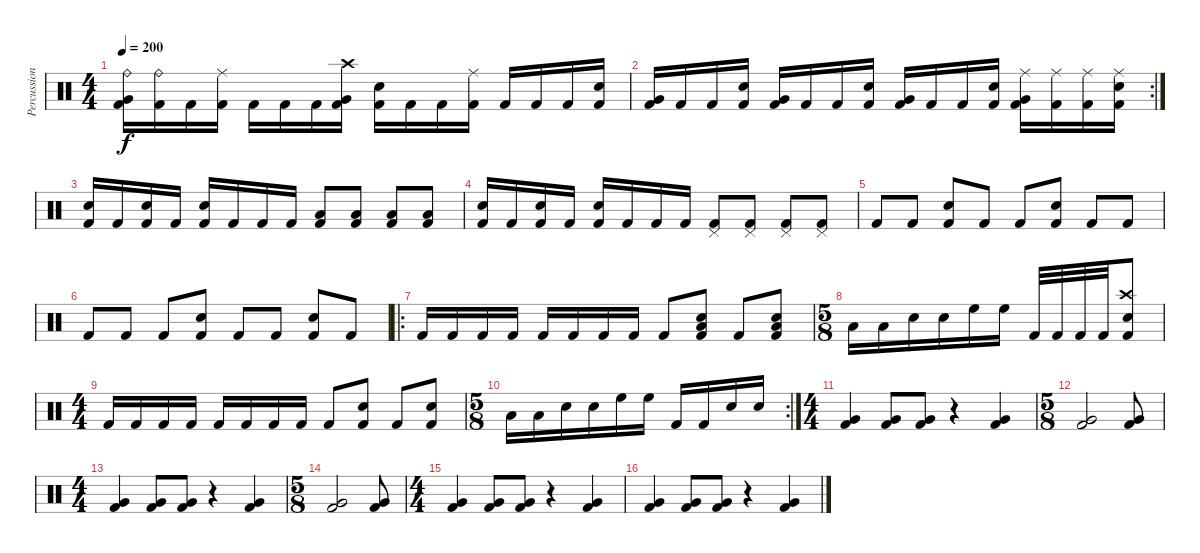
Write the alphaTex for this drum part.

\track ("Percussions" "Percussion") {instrument percussion}
\staff {score}
\articulation defaults
\ts (4 4)
\tempo 200
\clef neutral
\ks c
("Ride (bell)" "Very Low Tom (hit)" "Kick (hit) 2").16{dy f} ("Ride (bell)" "Kick (hit) 2").16 "Kick (hit) 2".16 ("Ride (middle)" "Kick (hit) 2").16 "Kick (hit) 2".16 "Kick (hit) 2".16 "Kick (hit) 2".16 ("Crash high (hit)" "Very Low Tom (hit)" "Kick (hit) 2").16 ("Snare (hit) 2" "Kick (hit) 2").16 "Kick (hit) 2".16 "Kick (hit) 2".16 ("Ride (middle)" "Kick (hit) 2").16 "Kick (hit) 2".16 "Kick (hit) 2".16 "Kick (hit) 2".16 ("Snare (hit) 2" "Kick (hit) 2").16 |
\rc 2
("Very Low Tom (hit)" "Kick (hit) 2").16 "Kick (hit) 2".16 "Kick (hit) 2".16 ("Snare (hit) 2" "Kick (hit) 2").16 ("Very Low Tom (hit)" "Kick (hit) 2").16 "Kick (hit) 2".16 "Kick (hit) 2".16 ("Snare (hit) 2" "Kick (hit) 2").16 ("Very Low Tom (hit)" "Kick (hit) 2").16 "Kick (hit) 2".16 "Kick (hit) 2".16 ("Snare (hit) 2" "Kick (hit) 2").16 ("Ride (middle)" "Very Low Tom (hit)" "Kick (hit) 2").16 ("Ride (middle)" "Kick (hit) 2").16 ("Ride (middle)" "Kick (hit) 2").16 ("Ride (middle)" "Snare (hit) 2" "Kick (hit) 2").16 |
("Snare (hit) 2" "Kick (hit) 2").16 "Kick (hit) 2".16 ("Snare (hit) 2" "Kick (hit) 2").16 "Kick (hit) 2".16 ("Snare (hit) 2" "Kick (hit) 2").16 "Kick (hit) 2".16 "Kick (hit) 2".16 "Kick (hit) 2".16 ("Low Floor Tom (hit)" "Kick (hit) 2").8 ("Low Floor Tom (hit)" "Kick (hit) 2").8 ("Low Floor Tom (hit)" "Kick (hit) 2").8 ("Low Floor Tom (hit)" "Kick (hit) 2").8 |
("Snare (hit) 2" "Kick (hit) 2").16 "Kick (hit) 2".16 ("Snare (hit) 2" "Kick (hit) 2").16 "Kick (hit) 2".16 ("Snare (hit) 2" "Kick (hit) 2").16 "Kick (hit) 2".16 "Kick (hit) 2".16 "Kick (hit) 2".16 ("Pedal Hi-Hat (hit)" "Kick (hit) 2").8 ("Pedal Hi-Hat (hit)" "Kick (hit) 2").8 ("Pedal Hi-Hat (hit)" "Kick (hit) 2").8 ("Pedal Hi-Hat (hit)" "Kick (hit) 2").8 |
"Kick (hit) 2".8 "Kick (hit) 2".8 ("Snare (hit) 2" "Kick (hit) 2").8 "Kick (hit) 2".8 "Kick (hit) 2".8 ("Snare (hit) 2" "Kick (hit) 2").8 "Kick (hit) 2".8 "Kick (hit) 2".8 |
"Kick (hit) 2".8 "Kick (hit) 2".8 "Kick (hit) 2".8 ("Snare (hit) 2" "Kick (hit) 2").8 "Kick (hit) 2".8 "Kick (hit) 2".8 ("Snare (hit) 2" "Kick (hit) 2").8 "Kick (hit) 2".8 |
\ro "Kick (hit) 2".16 "Kick (hit) 2".16 "Kick (hit) 2".16 "Kick (hit) 2".16 "Kick (hit) 2".16 "Kick (hit) 2".16 "Kick (hit) 2".16 "Kick (hit) 2".16 "Kick (hit) 2".8
("Snare (hit) 2" "Low Floor Tom (hit)" "Kick (hit) 2").8 "Kick (hit) 2".8 ("Snare (hit) 2" "Low Floor Tom (hit)" "Kick (hit) 2").8 |
\ts (5 8)
"Low Floor Tom (hit)".16 "Low Floor Tom (hit)".16 "Snare (hit) 2".16 "Snare (hit) 2".16 "High Floor Tom (hit)".16 "High Floor Tom (hit)".16 "Kick (hit) 2".32 "Kick (hit) 2".32 "Kick (hit) 2".32 "Kick (hit) 2".32 ("Crash high (hit)" "Snare (hit) 2" "Kick (hit) 2").8 |
\ts (4 4)
"Kick (hit) 2".16 "Kick (hit) 2".16 "Kick (hit) 2".16 "Kick (hit) 2".16 "Kick (hit) 2".16 "Kick (hit) 2".16 "Kick (hit) 2".16 "Kick (hit) 2".16 "Kick (hit) 2".8 ("Snare (hit) 2" "Kick (hit) 2").8 "Kick (hit) 2".8 ("Snare (hit) 2" "Kick (hit) 2").8 |
\rc 2
\ts (5 8)
"Low Floor Tom (hit)".16 "Low Floor Tom (hit)".16 "Snare (hit) 2".16 "Snare (hit) 2".16 "High Floor Tom (hit)".16 "High Floor Tom (hit)".16 "Kick (hit) 2".16 "Kick (hit) 2".16 "Electric Snare (hit)".16 "Electric Snare (hit)".16 |
\ts (4 4)
("Very Low Tom (hit)" "Kick (hit) 2").4 ("Very Low Tom (hit)" "Kick (hit) 2").8 ("Very Low Tom (hit)" "Kick (hit) 2").8 r.4 ("Very Low Tom (hit)" "Kick (hit) 2").4 |
\ts (5 8)
("Very Low Tom (hit)" "Kick (hit) 2").2 ("Very Low Tom (hit)" "Kick (hit) 2").8 |
\ts (4 4)
("Very Low Tom (hit)" "Kick (hit) 2").4 ("Very Low Tom (hit)" "Kick (hit) 2").8 ("Very Low Tom (hit)" "Kick (hit) 2").8 r.4 ("Very Low Tom (hit)" "Kick (hit) 2").4 |
\ts (5 8)
("Very Low Tom (hit)" "Kick (hit) 2").2 ("Very Low Tom (hit)" "Kick (hit) 2").8 |
\ts (4 4)
("Very Low Tom (hit)" "Kick (hit) 2").4 ("Very Low Tom (hit)" "Kick (hit) 2").8 ("Very Low Tom (hit)" "Kick (hit) 2").8 r.4 ("Very Low Tom (hit)" "Kick (hit) 2").4 |
("Very Low Tom (hit)" "Kick (hit) 2").4 ("Very Low Tom (hit)" "Kick (hit) 2").8 ("Very Low Tom (hit)" "Kick (hit) 2").8 r.4 ("Very Low Tom (hit)" "Kick (hit) 2").4
